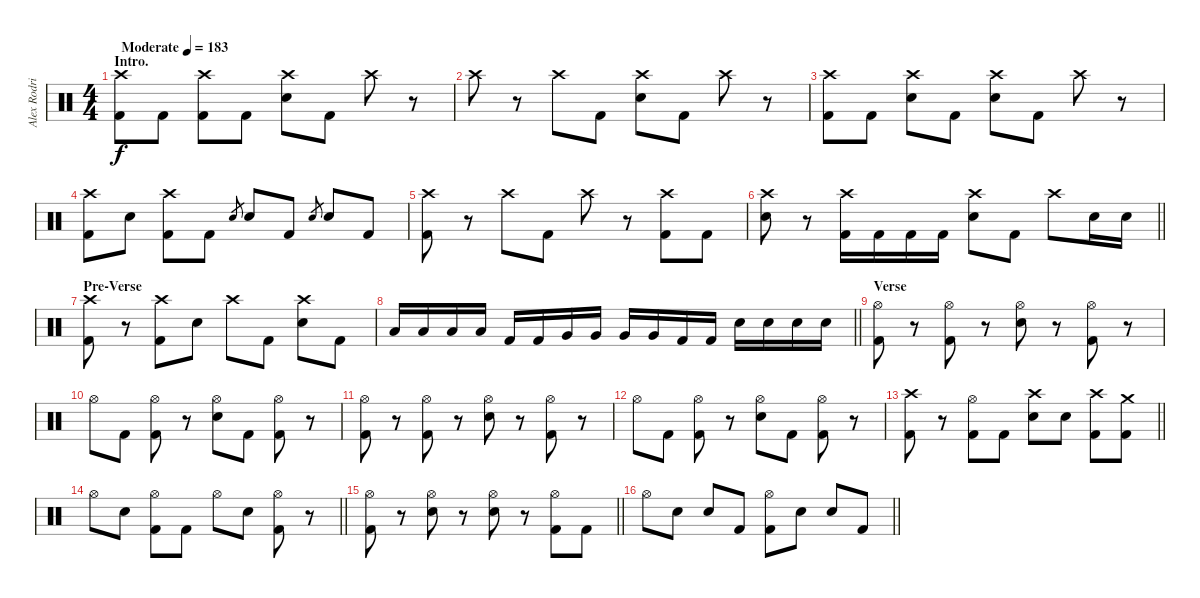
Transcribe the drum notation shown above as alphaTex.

\track ("Alex Rodriguez [Not Finished Yet]" "Alex Rodri") {mute instrument percussion}
\staff {score}
\articulation defaults
\ts (4 4)
\section ("" "Intro.")
\tempo (183 "Moderate")
\clef neutral
\ks c
("Crash high (hit)" "Kick (hit) 2").8{dy f} "Kick (hit) 2".8 ("Crash high (hit)" "Kick (hit) 2").8 "Kick (hit) 2".8 ("Crash high (hit)" "Electric Snare (hit)").8 "Kick (hit) 2".8 "Crash high (hit)".8 r.8 |
"Crash high (hit)".8 r.8 "Crash high (hit)".8 "Kick (hit) 2".8 ("Crash high (hit)" "Electric Snare (hit)").8 "Kick (hit) 2".8 "Crash high (hit)".8 r.8 |
("Crash high (hit)" "Kick (hit) 2").8 "Kick (hit) 2".8 ("Crash high (hit)" "Electric Snare (hit)").8 "Kick (hit) 2".8 ("Crash high (hit)" "Electric Snare (hit)").8 "Kick (hit) 2".8 "Crash high (hit)".8 r.8 |
("Crash high (hit)" "Kick (hit) 2").8 "Electric Snare (hit)".8 ("Crash high (hit)" "Kick (hit) 2").8 "Kick (hit) 2".8 "Electric Snare (hit)".8{gr} "Electric Snare (hit)".8 "Kick (hit) 2".8 "Electric Snare (hit)".8{gr} "Electric Snare (hit)".8 "Kick (hit) 2".8 |
("Crash high (hit)" "Kick (hit) 2").8 r.8 "Crash high (hit)".8 "Kick (hit) 2".8 "Crash high (hit)".8 r.8 ("Crash high (hit)" "Kick (hit) 2").8 "Kick (hit) 2".8 |
\barLineRight lightlight
("Crash high (hit)" "Electric Snare (hit)").8 r.8 ("Crash high (hit)" "Kick (hit) 2").16 "Kick (hit) 2".16 "Kick (hit) 2".16 "Kick (hit) 2".16 ("Crash high (hit)" "Electric Snare (hit)").8 "Kick (hit) 2".8 "Crash high (hit)".8 "Electric Snare (hit)".16 "Electric Snare (hit)".16 |
\section ("" "Pre-Verse")
("Crash high (hit)" "Kick (hit) 2").8 r.8 ("Crash high (hit)" "Kick (hit) 2").8 "Electric Snare (hit)".8 "Crash high (hit)".8 "Kick (hit) 2".8 ("Crash high (hit)" "Electric Snare (hit)").8 "Kick (hit) 2".8 |
\barLineRight lightlight "Low Tom (hit)".16 "Low Tom (hit)".16 "Low Tom (hit)".16 "Low Tom (hit)".16 "Kick (hit) 2".16 "Kick (hit) 2".16 "Very Low Tom (hit)".16 "Very Low Tom (hit)".16 "Very Low Tom (hit)".16 "Very Low Tom (hit)".16 "Kick (hit) 2".16 "Kick (hit) 2".16 "Electric Snare (hit)".16 "Electric Snare (hit)".16 "Electric Snare (hit)".16 "Electric Snare (hit)".16
|
\section ("" "Verse")
("Hi-Hat (open)" "Kick (hit) 2").8 r.8 ("Hi-Hat (open)" "Kick (hit) 2").8 r.8 ("Hi-Hat (open)" "Electric Snare (hit)").8 r.8 ("Hi-Hat (open)" "Kick (hit) 2").8 r.8 |
"Hi-Hat (open)".8 "Kick (hit) 2".8 ("Hi-Hat (open)" "Kick (hit) 2").8 r.8 ("Hi-Hat (open)" "Electric Snare (hit)").8 "Kick (hit) 2".8 ("Hi-Hat (open)" "Kick (hit) 2").8 r.8 |
("Hi-Hat (open)" "Kick (hit) 2").8 r.8 ("Hi-Hat (open)" "Kick (hit) 2").8 r.8 ("Hi-Hat (open)" "Electric Snare (hit)").8 r.8 ("Hi-Hat (open)" "Kick (hit) 2").8 r.8 |
"Hi-Hat (open)".8 "Kick (hit) 2".8 ("Hi-Hat (open)" "Kick (hit) 2").8 r.8 ("Hi-Hat (open)" "Electric Snare (hit)").8 "Kick (hit) 2".8 ("Hi-Hat (open)" "Kick (hit) 2").8 r.8 |
\barLineRight lightlight
("Crash high (hit)" "Kick (hit) 2").8 r.8 ("Hi-Hat (open)" "Kick (hit) 2").8 "Kick (hit) 2".8 ("Crash high (hit)" "Electric Snare (hit)").8 "Electric Snare (hit)".8 ("Crash high (hit)" "Kick (hit) 2").8 ("Crash medium (hit)" "Kick (hit) 2").8 |
\barLineRight lightlight "Hi-Hat (open)".8 "Electric Snare (hit)".8
("Hi-Hat (open)" "Kick (hit) 2").8 "Kick (hit) 2".8 "Hi-Hat (open)".8 "Electric Snare (hit)".8 ("Hi-Hat (open)" "Kick (hit) 2").8 r.8 |
\barLineRight lightlight
("Hi-Hat (open)" "Kick (hit) 2").8 r.8 ("Hi-Hat (open)" "Electric Snare (hit)").8 r.8 ("Hi-Hat (open)" "Electric Snare (hit)").8 r.8 ("Hi-Hat (open)" "Kick (hit) 2").8 "Kick (hit) 2".8 |
\barLineRight lightlight "Hi-Hat (open)".8 "Electric Snare (hit)".8 "Electric Snare (hit)".8 "Kick (hit) 2".8
("Hi-Hat (open)" "Kick (hit) 2").8 "Electric Snare (hit)".8 "Electric Snare (hit)".8 "Kick (hit) 2".8
